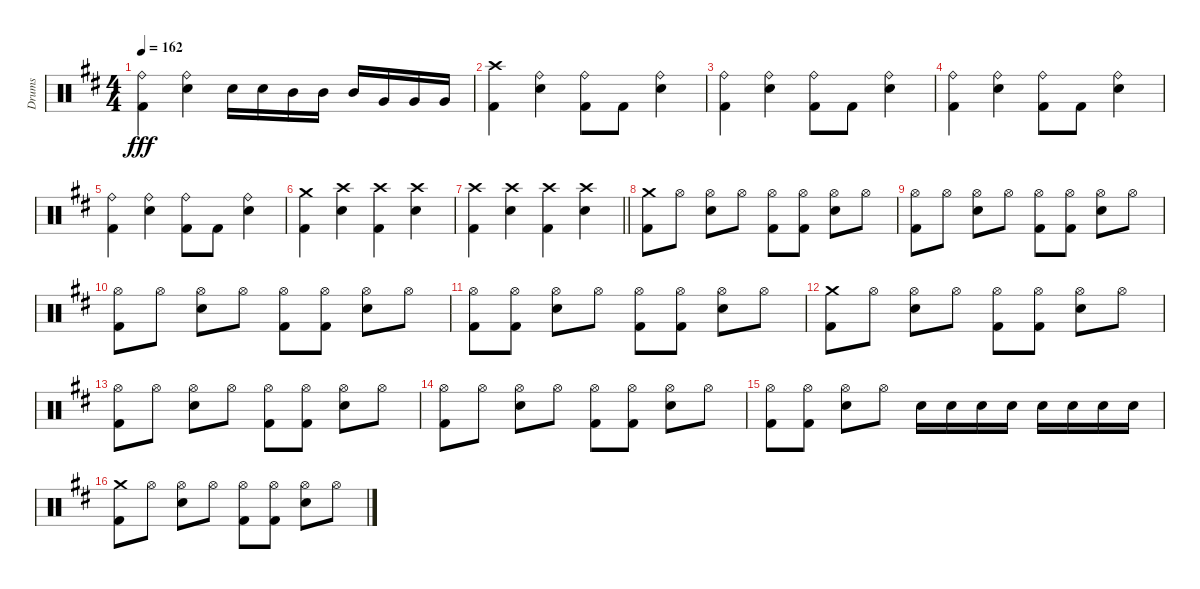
\track ("Drums" "Drums") {instrument percussion}
\staff {score}
\articulation defaults
\ts (4 4)
\tempo 162
\clef neutral
\ks d
("Ride (bell)" "Kick (hit) 2").4{dy fff} ("Ride (bell)" "Snare (hit) 2").4 "Snare (hit) 2".16 "Snare (hit) 2".16 "Mid Tom (hit)".16 "Mid Tom (hit)".16 "Mid Tom (hit)".16 "Very Low Tom (hit)".16 "Very Low Tom (hit)".16 "Very Low Tom (hit)".16 |
("Crash high (hit)" "Kick (hit) 2").4 ("Ride (bell)" "Snare (hit) 2").4 ("Ride (bell)" "Kick (hit) 2").8 "Kick (hit) 2".8 ("Ride (bell)" "Snare (hit) 2").4 |
("Ride (bell)" "Kick (hit) 2").4 ("Ride (bell)" "Snare (hit) 2").4 ("Ride (bell)" "Kick (hit) 2").8 "Kick (hit) 2".8 ("Ride (bell)" "Snare (hit) 2").4 |
("Ride (bell)" "Kick (hit) 2").4 ("Ride (bell)" "Snare (hit) 2").4 ("Ride (bell)" "Kick (hit) 2").8 "Kick (hit) 2".8 ("Ride (bell)" "Snare (hit) 2").4 |
("Ride (bell)" "Kick (hit) 2").4 ("Ride (bell)" "Snare (hit) 2").4 ("Ride (bell)" "Kick (hit) 2").8 "Kick (hit) 2".8 ("Ride (bell)" "Snare (hit) 2").4 |
("Crash medium (hit)" "Kick (hit) 2").4 ("Crash high (hit)" "Snare (hit) 2").4 ("Crash high (hit)" "Kick (hit) 2").4 ("Crash high (hit)" "Snare (hit) 2").4 |
\barLineRight lightlight
("Crash high (hit)" "Kick (hit) 2").4 ("Crash high (hit)" "Snare (hit) 2").4 ("Crash high (hit)" "Kick (hit) 2").4 ("Crash high (hit)" "Snare (hit) 2").4 |
("Crash medium (hit)" "Kick (hit) 2").8 "Hi-Hat (open)".8 ("Hi-Hat (open)" "Snare (hit) 2").8 "Hi-Hat (open)".8 ("Hi-Hat (open)" "Kick (hit) 2").8 ("Hi-Hat (open)" "Kick (hit) 2").8 ("Hi-Hat (open)" "Snare (hit) 2").8 "Hi-Hat (open)".8 |
("Hi-Hat (open)" "Kick (hit) 2").8 "Hi-Hat (open)".8 ("Hi-Hat (open)" "Snare (hit) 2").8 "Hi-Hat (open)".8 ("Hi-Hat (open)" "Kick (hit) 2").8 ("Hi-Hat (open)" "Kick (hit) 2").8 ("Hi-Hat (open)" "Snare (hit) 2").8 "Hi-Hat (open)".8 |
("Hi-Hat (open)" "Kick (hit) 2").8 "Hi-Hat (open)".8 ("Hi-Hat (open)" "Snare (hit) 2").8 "Hi-Hat (open)".8 ("Hi-Hat (open)" "Kick (hit) 2").8 ("Hi-Hat (open)" "Kick (hit) 2").8 ("Hi-Hat (open)" "Snare (hit) 2").8 "Hi-Hat (open)".8 |
("Hi-Hat (open)" "Kick (hit) 2").8 ("Hi-Hat (open)" "Kick (hit) 2").8 ("Hi-Hat (open)" "Snare (hit) 2").8 "Hi-Hat (open)".8 ("Hi-Hat (open)" "Kick (hit) 2").8 ("Hi-Hat (open)" "Kick (hit) 2").8 ("Hi-Hat (open)" "Snare (hit) 2").8 "Hi-Hat (open)".8 |
("Crash medium (hit)" "Kick (hit) 2").8 "Hi-Hat (open)".8 ("Hi-Hat (open)" "Snare (hit) 2").8 "Hi-Hat (open)".8 ("Hi-Hat (open)" "Kick (hit) 2").8 ("Hi-Hat (open)" "Kick (hit) 2").8 ("Hi-Hat (open)" "Snare (hit) 2").8 "Hi-Hat (open)".8 |
("Hi-Hat (open)" "Kick (hit) 2").8 "Hi-Hat (open)".8 ("Hi-Hat (open)" "Snare (hit) 2").8 "Hi-Hat (open)".8 ("Hi-Hat (open)" "Kick (hit) 2").8 ("Hi-Hat (open)" "Kick (hit) 2").8 ("Hi-Hat (open)" "Snare (hit) 2").8 "Hi-Hat (open)".8 |
("Hi-Hat (open)" "Kick (hit) 2").8 "Hi-Hat (open)".8 ("Hi-Hat (open)" "Snare (hit) 2").8 "Hi-Hat (open)".8 ("Hi-Hat (open)" "Kick (hit) 2").8 ("Hi-Hat (open)" "Kick (hit) 2").8 ("Hi-Hat (open)" "Snare (hit) 2").8 "Hi-Hat (open)".8 |
("Hi-Hat (open)" "Kick (hit) 2").8 ("Hi-Hat (open)" "Kick (hit) 2").8 ("Hi-Hat (open)" "Snare (hit) 2").8 "Hi-Hat (open)".8 "Snare (hit) 2".16 "Snare (hit) 2".16 "Snare (hit) 2".16 "Snare (hit) 2".16 "Snare (hit) 2".16 "Snare (hit) 2".16 "Snare (hit) 2".16 "Snare (hit) 2".16 |
("Crash medium (hit)" "Kick (hit) 2").8 "Hi-Hat (open)".8 ("Hi-Hat (open)" "Snare (hit) 2").8 "Hi-Hat (open)".8 ("Hi-Hat (open)" "Kick (hit) 2").8 ("Hi-Hat (open)" "Kick (hit) 2").8 ("Hi-Hat (open)" "Snare (hit) 2").8 "Hi-Hat (open)".8
